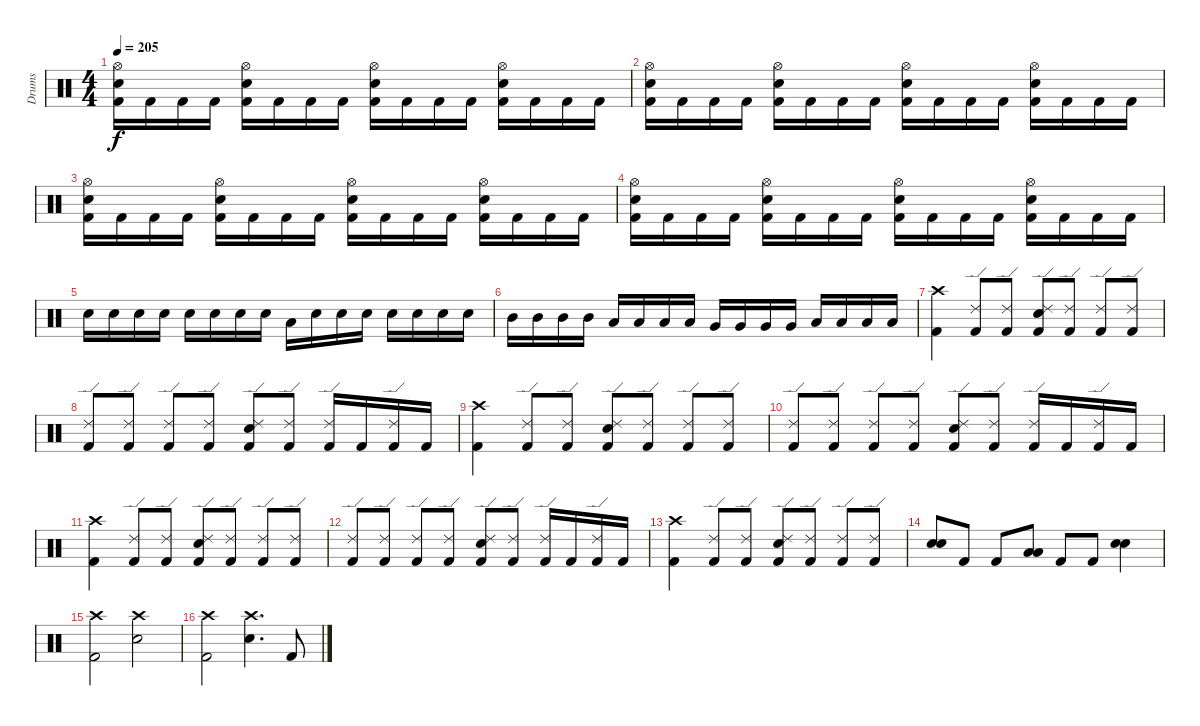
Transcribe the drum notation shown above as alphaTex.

\track ("Drums" "Drums") {instrument percussion bank 169}
\staff {score}
\articulation defaults
\ts (4 4)
\tempo 205
\clef neutral
\ks c
("Hi-Hat (open)" "Snare (hit) 2" "Kick (hit) 2").16{dy f} "Kick (hit) 2".16 "Kick (hit) 2".16 "Kick (hit) 2".16 ("Hi-Hat (open)" "Snare (hit) 2" "Kick (hit) 2").16 "Kick (hit) 2".16 "Kick (hit) 2".16 "Kick (hit) 2".16 ("Hi-Hat (open)" "Snare (hit) 2" "Kick (hit) 2").16 "Kick (hit) 2".16 "Kick (hit) 2".16 "Kick (hit) 2".16 ("Hi-Hat (open)" "Snare (hit) 2" "Kick (hit) 2").16 "Kick (hit) 2".16 "Kick (hit) 2".16 "Kick (hit) 2".16 |
("Hi-Hat (open)" "Snare (hit) 2" "Kick (hit) 2").16 "Kick (hit) 2".16 "Kick (hit) 2".16 "Kick (hit) 2".16 ("Hi-Hat (open)" "Snare (hit) 2" "Kick (hit) 2").16 "Kick (hit) 2".16 "Kick (hit) 2".16 "Kick (hit) 2".16 ("Hi-Hat (open)" "Snare (hit) 2" "Kick (hit) 2").16 "Kick (hit) 2".16 "Kick (hit) 2".16 "Kick (hit) 2".16 ("Hi-Hat (open)" "Snare (hit) 2" "Kick (hit) 2").16 "Kick (hit) 2".16 "Kick (hit) 2".16 "Kick (hit) 2".16 |
("Hi-Hat (open)" "Snare (hit) 2" "Kick (hit) 2").16 "Kick (hit) 2".16 "Kick (hit) 2".16 "Kick (hit) 2".16 ("Hi-Hat (open)" "Snare (hit) 2" "Kick (hit) 2").16 "Kick (hit) 2".16 "Kick (hit) 2".16 "Kick (hit) 2".16 ("Hi-Hat (open)" "Snare (hit) 2" "Kick (hit) 2").16 "Kick (hit) 2".16 "Kick (hit) 2".16 "Kick (hit) 2".16 ("Hi-Hat (open)" "Snare (hit) 2" "Kick (hit) 2").16 "Kick (hit) 2".16 "Kick (hit) 2".16 "Kick (hit) 2".16 |
("Hi-Hat (open)" "Snare (hit) 2" "Kick (hit) 2").16 "Kick (hit) 2".16 "Kick (hit) 2".16 "Kick (hit) 2".16 ("Hi-Hat (open)" "Snare (hit) 2" "Kick (hit) 2").16 "Kick (hit) 2".16 "Kick (hit) 2".16 "Kick (hit) 2".16 ("Hi-Hat (open)" "Snare (hit) 2" "Kick (hit) 2").16 "Kick (hit) 2".16 "Kick (hit) 2".16 "Kick (hit) 2".16 ("Hi-Hat (open)" "Snare (hit) 2" "Kick (hit) 2").16 "Kick (hit) 2".16 "Kick (hit) 2".16 "Kick (hit) 2".16 |
"Snare (hit) 2".16 "Snare (hit) 2".16 "Snare (hit) 2".16 "Snare (hit) 2".16 "Snare (hit) 2".16 "Snare (hit) 2".16 "Snare (hit) 2".16 "Snare (hit) 2".16 "Low Tom (hit)".16 "Snare (hit) 2".16 "Snare (hit) 2".16 "Snare (hit) 2".16 "Snare (hit) 2".16 "Snare (hit) 2".16 "Snare (hit) 2".16 "Snare (hit) 2".16 |
"Mid Tom (hit)".16 "Mid Tom (hit)".16 "Mid Tom (hit)".16 "Mid Tom (hit)".16 "Low Tom (hit)".16 "Low Tom (hit)".16 "Low Tom (hit)".16 "Low Tom (hit)".16 "Very Low Tom (hit)".16 "Very Low Tom (hit)".16 "Very Low Tom (hit)".16 "Very Low Tom (hit)".16 "Low Floor Tom (hit)".16 "Low Floor Tom (hit)".16 "Low Floor Tom (hit)".16 "Low Floor Tom (hit)".16 |
("Crash high (hit)" "Kick (hit) 2").4 ("Ride (edge) 2" "Kick (hit) 2").8 ("Ride (edge) 2" "Kick (hit) 2").8 ("Ride (edge) 2" "Snare (hit) 2" "Kick (hit) 2").8 ("Ride (edge) 2" "Kick (hit) 2").8 ("Ride (edge) 2" "Kick (hit) 2").8 ("Ride (edge) 2" "Kick (hit) 2").8 |
("Ride (edge) 2" "Kick (hit) 2").8 ("Ride (edge) 2" "Kick (hit) 2").8 ("Ride (edge) 2" "Kick (hit) 2").8 ("Ride (edge) 2" "Kick (hit) 2").8 ("Ride (edge) 2" "Snare (hit) 2" "Kick (hit) 2").8 ("Ride (edge) 2" "Kick (hit) 2").8 ("Ride (edge) 2" "Kick (hit) 2").16 "Kick (hit) 2".16 ("Ride (edge) 2" "Kick (hit) 2").16 "Kick (hit) 2".16 |
("Crash high (hit)" "Kick (hit) 2").4 ("Ride (edge) 2" "Kick (hit) 2").8 ("Ride (edge) 2" "Kick (hit) 2").8 ("Ride (edge) 2" "Snare (hit) 2" "Kick (hit) 2").8 ("Ride (edge) 2" "Kick (hit) 2").8 ("Ride (edge) 2" "Kick (hit) 2").8 ("Ride (edge) 2" "Kick (hit) 2").8 |
("Ride (edge) 2" "Kick (hit) 2").8 ("Ride (edge) 2" "Kick (hit) 2").8 ("Ride (edge) 2" "Kick (hit) 2").8 ("Ride (edge) 2" "Kick (hit) 2").8 ("Ride (edge) 2" "Snare (hit) 2" "Kick (hit) 2").8 ("Ride (edge) 2" "Kick (hit) 2").8 ("Ride (edge) 2" "Kick (hit) 2").16 "Kick (hit) 2".16 ("Ride (edge) 2" "Kick (hit) 2").16 "Kick (hit) 2".16 |
("Crash high (hit)" "Kick (hit) 2").4 ("Ride (edge) 2" "Kick (hit) 2").8 ("Ride (edge) 2" "Kick (hit) 2").8 ("Ride (edge) 2" "Snare (hit) 2" "Kick (hit) 2").8 ("Ride (edge) 2" "Kick (hit) 2").8 ("Ride (edge) 2" "Kick (hit) 2").8 ("Ride (edge) 2" "Kick (hit) 2").8 |
("Ride (edge) 2" "Kick (hit) 2").8 ("Ride (edge) 2" "Kick (hit) 2").8 ("Ride (edge) 2" "Kick (hit) 2").8 ("Ride (edge) 2" "Kick (hit) 2").8 ("Ride (edge) 2" "Snare (hit) 2" "Kick (hit) 2").8 ("Ride (edge) 2" "Kick (hit) 2").8 ("Ride (edge) 2" "Kick (hit) 2").16 "Kick (hit) 2".16 ("Ride (edge) 2" "Kick (hit) 2").16 "Kick (hit) 2".16 |
("Crash high (hit)" "Kick (hit) 2").4 ("Ride (edge) 2" "Kick (hit) 2").8 ("Ride (edge) 2" "Kick (hit) 2").8 ("Ride (edge) 2" "Snare (hit) 2" "Kick (hit) 2").8 ("Ride (edge) 2" "Kick (hit) 2").8 ("Ride (edge) 2" "Kick (hit) 2").8 ("Ride (edge) 2" "Kick (hit) 2").8 |
("Snare (hit) 2" "Snare (hit) 2").8 "Kick (hit) 2".8 "Kick (hit) 2".8 ("Low Tom (hit)" "Low Floor Tom (hit)").8 "Kick (hit) 2".8 "Kick (hit) 2".8 ("Snare (hit) 2" "Snare (hit) 2").4 |
("Crash high (hit)" "Kick (hit) 2").2 ("Crash high (hit)" "Snare (hit) 2").2 |
("Crash high (hit)" "Kick (hit) 2").2 ("Crash high (hit)" "Snare (hit) 2").4{d} "Kick (hit) 2".8
